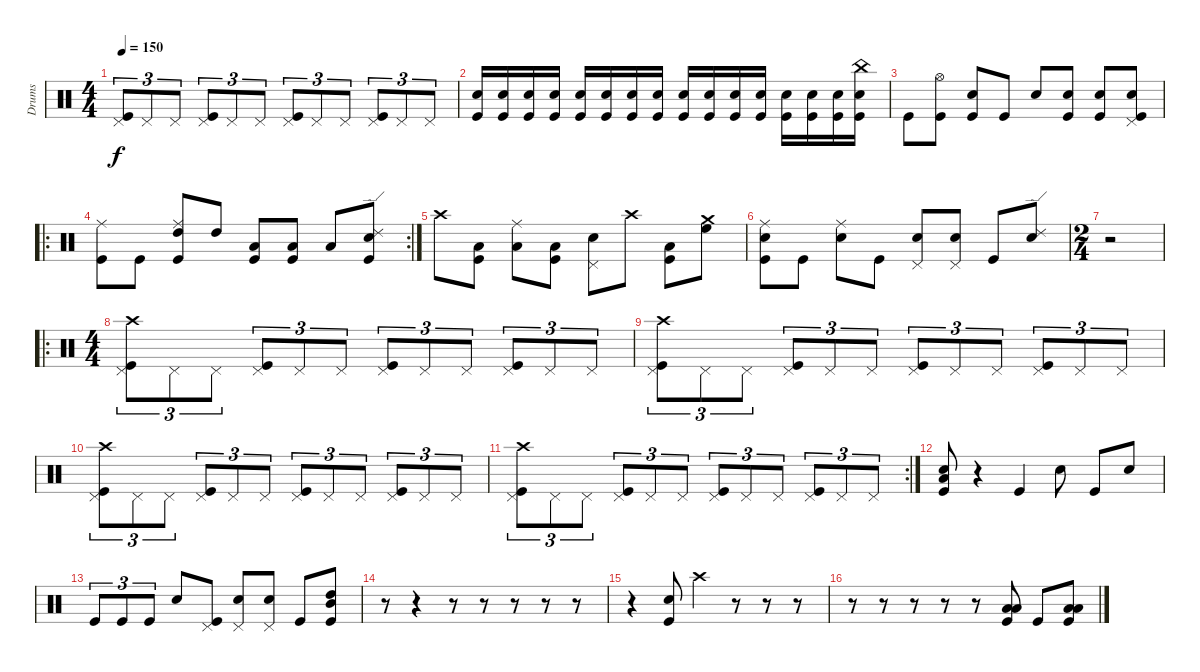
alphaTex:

\track ("Drums" "Drums") {instrument percussion}
\staff {score}
\articulation defaults
\ts (4 4)
\tempo 150
\clef neutral
\ks c
("Kick (hit)" "Pedal Hi-Hat (hit)").8{tu (3 2) dy f} "Pedal Hi-Hat (hit)".8{tu (3 2)} "Pedal Hi-Hat (hit)".8{tu (3 2)} ("Kick (hit)" "Pedal Hi-Hat (hit)").8{tu (3 2)} "Pedal Hi-Hat (hit)".8{tu (3 2)} "Pedal Hi-Hat (hit)".8{tu (3 2)} ("Kick (hit)" "Pedal Hi-Hat (hit)").8{tu (3 2)} "Pedal Hi-Hat (hit)".8{tu (3 2)} "Pedal Hi-Hat (hit)".8{tu (3 2)} ("Kick (hit)" "Pedal Hi-Hat (hit)").8{tu (3 2)} "Pedal Hi-Hat (hit)".8{tu (3 2)} "Pedal Hi-Hat (hit)".8{tu (3 2)} |
("Kick (hit)" "Snare (hit) 2").16 ("Kick (hit)" "Snare (hit) 2").16 ("Kick (hit)" "Snare (hit) 2").16 ("Kick (hit)" "Snare (hit) 2").16 ("Kick (hit)" "Snare (hit) 2").16 ("Kick (hit)" "Snare (hit) 2").16 ("Kick (hit)" "Snare (hit) 2").16 ("Kick (hit)" "Snare (hit) 2").16 ("Kick (hit)" "Snare (hit) 2").16 ("Kick (hit)" "Snare (hit) 2").16 ("Kick (hit)" "Snare (hit) 2").16 ("Kick (hit)" "Snare (hit) 2").16 ("Kick (hit)" "Snare (hit) 2").16 ("Kick (hit)" "Snare (hit) 2").16 ("Kick (hit)" "Snare (hit) 2").16 ("Kick (hit)" "Snare (hit) 2" "China (hit)").16 |
"Kick (hit)".8 ("Kick (hit)" "Hi-Hat (open)").8 ("Kick (hit)" "Snare (hit) 2").8 "Kick (hit)".8 "Snare (hit) 2".8 ("Kick (hit)" "Snare (hit) 2").8 ("Kick (hit)" "Snare (hit) 2").8 ("Kick (hit)" "Snare (hit) 2" "Pedal Hi-Hat (hit)").8 |
\ro
\rc 2
("Kick (hit)" "Ride (middle)").8 "Kick (hit)".8 ("Kick (hit)" "High Tom (hit)" "Ride (middle)").8 "High Tom (hit)".8 ("Kick (hit)" "Low Tom (hit)").8 ("Kick (hit)" "Low Tom (hit)").8 "Low Tom (hit)".8 ("Kick (hit)" "Snare (hit) 2" "Ride (edge) 2").8 |
"Crash high (hit)".8 ("Kick (hit)" "Low Floor Tom (hit)").8 ("Low Floor Tom (hit)" "Ride (middle)").8 ("Kick (hit)" "Low Floor Tom (hit)").8 ("Snare (hit) 2" "Pedal Hi-Hat (hit)").8 "Crash high (hit)".8 ("Kick (hit)" "Low Floor Tom (hit)").8 ("High Floor Tom (hit)" "Crash medium (hit)").8 |
("Kick (hit)" "Snare (hit) 2" "Ride (middle)").8 "Kick (hit)".8 ("Snare (hit) 2" "Ride (middle)").8 "Kick (hit)".8 ("Snare (hit) 2" "Pedal Hi-Hat (hit)").8 ("Snare (hit) 2" "Pedal Hi-Hat (hit)").8 "Kick (hit)".8 ("Snare (hit) 2" "Ride (edge) 2").8 |
\ts (2 4)
r.2 |
\ro
\ts (4 4)
("Kick (hit)" "Pedal Hi-Hat (hit)" "Crash high (hit)").8{tu (3 2)} "Pedal Hi-Hat (hit)".8{tu (3 2)} "Pedal Hi-Hat (hit)".8{tu (3 2)} ("Kick (hit)" "Pedal Hi-Hat (hit)").8{tu (3 2)} "Pedal Hi-Hat (hit)".8{tu (3 2)} "Pedal Hi-Hat (hit)".8{tu (3 2)} ("Kick (hit)" "Pedal Hi-Hat (hit)").8{tu (3 2)} "Pedal Hi-Hat (hit)".8{tu (3 2)} "Pedal Hi-Hat (hit)".8{tu (3 2)} ("Kick (hit)" "Pedal Hi-Hat (hit)").8{tu (3 2)} "Pedal Hi-Hat (hit)".8{tu (3 2)} "Pedal Hi-Hat (hit)".8{tu (3 2)} |
("Kick (hit)" "Pedal Hi-Hat (hit)" "Crash high (hit)").8{tu (3 2)} "Pedal Hi-Hat (hit)".8{tu (3 2)} "Pedal Hi-Hat (hit)".8{tu (3 2)} ("Kick (hit)" "Pedal Hi-Hat (hit)").8{tu (3 2)} "Pedal Hi-Hat (hit)".8{tu (3 2)} "Pedal Hi-Hat (hit)".8{tu (3 2)} ("Kick (hit)" "Pedal Hi-Hat (hit)").8{tu (3 2)} "Pedal Hi-Hat (hit)".8{tu (3 2)} "Pedal Hi-Hat (hit)".8{tu (3 2)} ("Kick (hit)" "Pedal Hi-Hat (hit)").8{tu (3 2)} "Pedal Hi-Hat (hit)".8{tu (3 2)} "Pedal Hi-Hat (hit)".8{tu (3 2)} |
("Kick (hit)" "Pedal Hi-Hat (hit)" "Crash high (hit)").8{tu (3 2)} "Pedal Hi-Hat (hit)".8{tu (3 2)} "Pedal Hi-Hat (hit)".8{tu (3 2)} ("Kick (hit)" "Pedal Hi-Hat (hit)").8{tu (3 2)} "Pedal Hi-Hat (hit)".8{tu (3 2)} "Pedal Hi-Hat (hit)".8{tu (3 2)} ("Kick (hit)" "Pedal Hi-Hat (hit)").8{tu (3 2)} "Pedal Hi-Hat (hit)".8{tu (3 2)} "Pedal Hi-Hat (hit)".8{tu (3 2)} ("Kick (hit)" "Pedal Hi-Hat (hit)").8{tu (3 2)} "Pedal Hi-Hat (hit)".8{tu (3 2)} "Pedal Hi-Hat (hit)".8{tu (3 2)} |
\rc 2
("Kick (hit)" "Pedal Hi-Hat (hit)" "Crash high (hit)").8{tu (3 2)} "Pedal Hi-Hat (hit)".8{tu (3 2)} "Pedal Hi-Hat (hit)".8{tu (3 2)} ("Kick (hit)" "Pedal Hi-Hat (hit)").8{tu (3 2)} "Pedal Hi-Hat (hit)".8{tu (3 2)} "Pedal Hi-Hat (hit)".8{tu (3 2)} ("Kick (hit)" "Pedal Hi-Hat (hit)").8{tu (3 2)} "Pedal Hi-Hat (hit)".8{tu (3 2)} "Pedal Hi-Hat (hit)".8{tu (3 2)} ("Kick (hit)" "Pedal Hi-Hat (hit)").8{tu (3 2)} "Pedal Hi-Hat (hit)".8{tu (3 2)} "Pedal Hi-Hat (hit)".8{tu (3 2)} |
("Kick (hit)" "Low Floor Tom (hit)" "Snare (hit) 2").8 r.4 "Kick (hit)".4 "Snare (hit) 2".8 "Kick (hit)".8 "Snare (hit) 2".8 |
"Kick (hit)".8{tu (3 2)} "Kick (hit)".8{tu (3 2)} "Kick (hit)".8{tu (3 2)} "Snare (hit) 2".8 ("Kick (hit)" "Pedal Hi-Hat (hit)").8 ("Snare (hit) 2" "Pedal Hi-Hat (hit)").8 ("Snare (hit) 2" "Pedal Hi-Hat (hit)").8 "Kick (hit)".8 ("Kick (hit)" "High Tom (hit)" "Mid Tom (hit)").8 |
r.8 r.4 r.8 r.8 r.8 r.8 r.8 |
r.4 ("Kick (hit)" "Snare (hit) 2").8 "Crash high (hit)".4 r.8 r.8 r.8 |
r.8 r.8 r.8 r.8 r.8 ("Kick (hit)" "Low Tom (hit)" "Low Floor Tom (hit)").8 "Kick (hit)".8 ("Kick (hit)" "Low Tom (hit)" "Low Floor Tom (hit)").8
